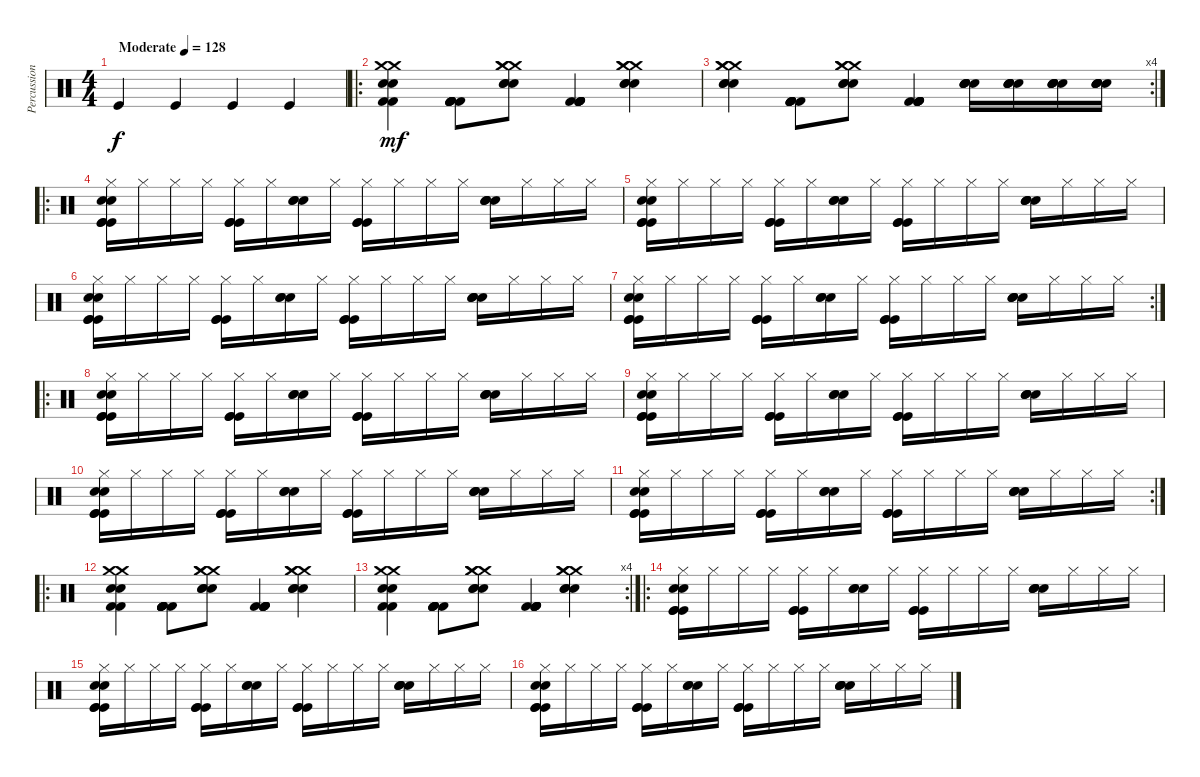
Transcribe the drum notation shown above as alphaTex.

\track ("Percussion" "Percussion") {instrument percussion}
\staff {score}
\articulation defaults
\ts (4 4)
\tempo (128 "Moderate")
\clef neutral
\ks c "Kick (hit)".4{dy f} "Kick (hit)".4 "Kick (hit)".4 "Kick (hit)".4
|
\ro
("Snare (hit) 2" "Snare (hit) 2" "Kick (hit) 2" "Kick (hit) 2" "Crash medium (hit)" "Crash medium (hit)").4{dy mf} ("Kick (hit) 2" "Kick (hit) 2" "Kick (hit) 2" "Kick (hit) 2" "Kick (hit) 2" "Kick (hit) 2").8 ("Snare (hit) 2" "Crash medium (hit)" "Snare (hit) 2" "Crash medium (hit)" "Snare (hit) 2" "Crash medium (hit)").8 ("Kick (hit) 2" "Kick (hit) 2" "Kick (hit) 2" "Kick (hit) 2" "Kick (hit) 2" "Kick (hit) 2").4 ("Snare (hit) 2" "Crash medium (hit)" "Snare (hit) 2" "Crash medium (hit)" "Snare (hit) 2" "Crash medium (hit)").4 |
\rc 4
("Snare (hit) 2" "Crash medium (hit)" "Snare (hit) 2" "Crash medium (hit)" "Snare (hit) 2" "Crash medium (hit)").4 ("Kick (hit) 2" "Kick (hit) 2" "Kick (hit) 2" "Kick (hit) 2" "Kick (hit) 2" "Kick (hit) 2").8 ("Snare (hit) 2" "Crash medium (hit)" "Snare (hit) 2" "Crash medium (hit)" "Snare (hit) 2" "Crash medium (hit)").8 ("Kick (hit) 2" "Kick (hit) 2" "Kick (hit) 2" "Kick (hit) 2" "Kick (hit) 2" "Kick (hit) 2").4 ("Snare (hit) 2" "Snare (hit) 2" "Snare (hit) 2" "Snare (hit) 2" "Snare (hit) 2").16 ("Snare (hit) 2" "Snare (hit) 2" "Snare (hit) 2" "Snare (hit) 2" "Snare (hit) 2").16 ("Snare (hit) 2" "Snare (hit) 2" "Snare (hit) 2" "Snare (hit) 2" "Snare (hit) 2").16 ("Snare (hit) 2" "Snare (hit) 2" "Snare (hit) 2" "Snare (hit) 2" "Snare (hit) 2").16 |
\ro
("Hi-Hat (closed)" "Kick (hit)" "Kick (hit)" "Kick (hit)" "Snare (hit) 2" "Snare (hit) 2").16 "Hi-Hat (closed)".16 "Hi-Hat (closed)".16 "Hi-Hat (closed)".16 ("Hi-Hat (closed)" "Kick (hit)" "Kick (hit)" "Kick (hit)").16 "Hi-Hat (closed)".16 ("Snare (hit) 2" "Snare (hit) 2" "Snare (hit) 2").16 "Hi-Hat (closed)".16 ("Hi-Hat (closed)" "Kick (hit)" "Kick (hit)" "Kick (hit)").16 "Hi-Hat (closed)".16 "Hi-Hat (closed)".16 "Hi-Hat (closed)".16 ("Snare (hit) 2" "Snare (hit) 2" "Snare (hit) 2" "Snare (hit) 2").16 "Hi-Hat (closed)".16 "Hi-Hat (closed)".16 "Hi-Hat (closed)".16 |
("Hi-Hat (closed)" "Kick (hit)" "Kick (hit)" "Kick (hit)" "Snare (hit) 2" "Snare (hit) 2").16 "Hi-Hat (closed)".16 "Hi-Hat (closed)".16 "Hi-Hat (closed)".16 ("Hi-Hat (closed)" "Kick (hit)" "Kick (hit)" "Kick (hit)").16 "Hi-Hat (closed)".16 ("Snare (hit) 2" "Snare (hit) 2" "Snare (hit) 2").16 "Hi-Hat (closed)".16 ("Hi-Hat (closed)" "Kick (hit)" "Kick (hit)" "Kick (hit)").16 "Hi-Hat (closed)".16 "Hi-Hat (closed)".16 "Hi-Hat (closed)".16 ("Snare (hit) 2" "Snare (hit) 2" "Snare (hit) 2" "Snare (hit) 2").16 "Hi-Hat (closed)".16 "Hi-Hat (closed)".16 "Hi-Hat (closed)".16 |
("Hi-Hat (closed)" "Kick (hit)" "Kick (hit)" "Kick (hit)" "Snare (hit) 2" "Snare (hit) 2").16 "Hi-Hat (closed)".16 "Hi-Hat (closed)".16 "Hi-Hat (closed)".16 ("Hi-Hat (closed)" "Kick (hit)" "Kick (hit)" "Kick (hit)").16 "Hi-Hat (closed)".16 ("Snare (hit) 2" "Snare (hit) 2" "Snare (hit) 2").16 "Hi-Hat (closed)".16 ("Hi-Hat (closed)" "Kick (hit)" "Kick (hit)" "Kick (hit)").16 "Hi-Hat (closed)".16 "Hi-Hat (closed)".16 "Hi-Hat (closed)".16 ("Snare (hit) 2" "Snare (hit) 2" "Snare (hit) 2" "Snare (hit) 2").16 "Hi-Hat (closed)".16 "Hi-Hat (closed)".16 "Hi-Hat (closed)".16 |
\rc 2
("Hi-Hat (closed)" "Kick (hit)" "Kick (hit)" "Kick (hit)" "Snare (hit) 2" "Snare (hit) 2").16 "Hi-Hat (closed)".16 "Hi-Hat (closed)".16 "Hi-Hat (closed)".16 ("Hi-Hat (closed)" "Kick (hit)" "Kick (hit)" "Kick (hit)").16 "Hi-Hat (closed)".16 ("Snare (hit) 2" "Snare (hit) 2" "Snare (hit) 2").16 "Hi-Hat (closed)".16 ("Hi-Hat (closed)" "Kick (hit)" "Kick (hit)" "Kick (hit)").16 "Hi-Hat (closed)".16 "Hi-Hat (closed)".16 "Hi-Hat (closed)".16 ("Snare (hit) 2" "Snare (hit) 2" "Snare (hit) 2" "Snare (hit) 2").16 "Hi-Hat (closed)".16 "Hi-Hat (closed)".16 "Hi-Hat (closed)".16 |
\ro
("Hi-Hat (closed)" "Kick (hit)" "Kick (hit)" "Kick (hit)" "Snare (hit) 2" "Snare (hit) 2").16 "Hi-Hat (closed)".16 "Hi-Hat (closed)".16 "Hi-Hat (closed)".16 ("Hi-Hat (closed)" "Kick (hit)" "Kick (hit)" "Kick (hit)").16 "Hi-Hat (closed)".16 ("Snare (hit) 2" "Snare (hit) 2" "Snare (hit) 2").16 "Hi-Hat (closed)".16 ("Hi-Hat (closed)" "Kick (hit)" "Kick (hit)" "Kick (hit)").16 "Hi-Hat (closed)".16 "Hi-Hat (closed)".16 "Hi-Hat (closed)".16 ("Snare (hit) 2" "Snare (hit) 2" "Snare (hit) 2" "Snare (hit) 2").16 "Hi-Hat (closed)".16 "Hi-Hat (closed)".16 "Hi-Hat (closed)".16 |
("Hi-Hat (closed)" "Kick (hit)" "Kick (hit)" "Kick (hit)" "Snare (hit) 2" "Snare (hit) 2").16 "Hi-Hat (closed)".16 "Hi-Hat (closed)".16 "Hi-Hat (closed)".16 ("Hi-Hat (closed)" "Kick (hit)" "Kick (hit)" "Kick (hit)").16 "Hi-Hat (closed)".16 ("Snare (hit) 2" "Snare (hit) 2" "Snare (hit) 2").16 "Hi-Hat (closed)".16 ("Hi-Hat (closed)" "Kick (hit)" "Kick (hit)" "Kick (hit)").16 "Hi-Hat (closed)".16 "Hi-Hat (closed)".16 "Hi-Hat (closed)".16 ("Snare (hit) 2" "Snare (hit) 2" "Snare (hit) 2" "Snare (hit) 2").16 "Hi-Hat (closed)".16 "Hi-Hat (closed)".16 "Hi-Hat (closed)".16 |
("Hi-Hat (closed)" "Kick (hit)" "Kick (hit)" "Kick (hit)" "Snare (hit) 2" "Snare (hit) 2").16 "Hi-Hat (closed)".16 "Hi-Hat (closed)".16 "Hi-Hat (closed)".16 ("Hi-Hat (closed)" "Kick (hit)" "Kick (hit)" "Kick (hit)").16 "Hi-Hat (closed)".16 ("Snare (hit) 2" "Snare (hit) 2" "Snare (hit) 2").16 "Hi-Hat (closed)".16 ("Hi-Hat (closed)" "Kick (hit)" "Kick (hit)" "Kick (hit)").16 "Hi-Hat (closed)".16 "Hi-Hat (closed)".16 "Hi-Hat (closed)".16 ("Snare (hit) 2" "Snare (hit) 2" "Snare (hit) 2" "Snare (hit) 2").16 "Hi-Hat (closed)".16 "Hi-Hat (closed)".16 "Hi-Hat (closed)".16 |
\rc 2
("Hi-Hat (closed)" "Kick (hit)" "Kick (hit)" "Kick (hit)" "Snare (hit) 2" "Snare (hit) 2").16 "Hi-Hat (closed)".16 "Hi-Hat (closed)".16 "Hi-Hat (closed)".16 ("Hi-Hat (closed)" "Kick (hit)" "Kick (hit)" "Kick (hit)").16 "Hi-Hat (closed)".16 ("Snare (hit) 2" "Snare (hit) 2" "Snare (hit) 2").16 "Hi-Hat (closed)".16 ("Hi-Hat (closed)" "Kick (hit)" "Kick (hit)" "Kick (hit)").16 "Hi-Hat (closed)".16 "Hi-Hat (closed)".16 "Hi-Hat (closed)".16 ("Snare (hit) 2" "Snare (hit) 2" "Snare (hit) 2" "Snare (hit) 2").16 "Hi-Hat (closed)".16 "Hi-Hat (closed)".16 "Hi-Hat (closed)".16 |
\ro
("Snare (hit) 2" "Snare (hit) 2" "Kick (hit) 2" "Kick (hit) 2" "Crash medium (hit)" "Crash medium (hit)").4 ("Kick (hit) 2" "Kick (hit) 2" "Kick (hit) 2" "Kick (hit) 2" "Kick (hit) 2" "Kick (hit) 2").8 ("Snare (hit) 2" "Crash medium (hit)" "Snare (hit) 2" "Crash medium (hit)" "Snare (hit) 2" "Crash medium (hit)").8 ("Kick (hit) 2" "Kick (hit) 2" "Kick (hit) 2" "Kick (hit) 2" "Kick (hit) 2" "Kick (hit) 2").4 ("Snare (hit) 2" "Crash medium (hit)" "Snare (hit) 2" "Crash medium (hit)" "Snare (hit) 2" "Crash medium (hit)").4 |
\rc 4
("Snare (hit) 2" "Snare (hit) 2" "Kick (hit) 2" "Kick (hit) 2" "Crash medium (hit)" "Crash medium (hit)").4 ("Kick (hit) 2" "Kick (hit) 2" "Kick (hit) 2" "Kick (hit) 2" "Kick (hit) 2" "Kick (hit) 2").8 ("Snare (hit) 2" "Crash medium (hit)" "Snare (hit) 2" "Crash medium (hit)" "Snare (hit) 2" "Crash medium (hit)").8 ("Kick (hit) 2" "Kick (hit) 2" "Kick (hit) 2" "Kick (hit) 2" "Kick (hit) 2" "Kick (hit) 2").4 ("Snare (hit) 2" "Crash medium (hit)" "Snare (hit) 2" "Crash medium (hit)" "Snare (hit) 2" "Crash medium (hit)").4 |
\ro
("Hi-Hat (closed)" "Kick (hit)" "Kick (hit)" "Kick (hit)" "Snare (hit) 2" "Snare (hit) 2").16 "Hi-Hat (closed)".16 "Hi-Hat (closed)".16 "Hi-Hat (closed)".16 ("Hi-Hat (closed)" "Kick (hit)" "Kick (hit)" "Kick (hit)").16 "Hi-Hat (closed)".16 ("Snare (hit) 2" "Snare (hit) 2" "Snare (hit) 2").16 "Hi-Hat (closed)".16 ("Hi-Hat (closed)" "Kick (hit)" "Kick (hit)" "Kick (hit)").16 "Hi-Hat (closed)".16 "Hi-Hat (closed)".16 "Hi-Hat (closed)".16 ("Snare (hit) 2" "Snare (hit) 2" "Snare (hit) 2" "Snare (hit) 2").16 "Hi-Hat (closed)".16 "Hi-Hat (closed)".16 "Hi-Hat (closed)".16 |
("Hi-Hat (closed)" "Kick (hit)" "Kick (hit)" "Kick (hit)" "Snare (hit) 2" "Snare (hit) 2").16 "Hi-Hat (closed)".16 "Hi-Hat (closed)".16 "Hi-Hat (closed)".16 ("Hi-Hat (closed)" "Kick (hit)" "Kick (hit)" "Kick (hit)").16 "Hi-Hat (closed)".16 ("Snare (hit) 2" "Snare (hit) 2" "Snare (hit) 2").16 "Hi-Hat (closed)".16 ("Hi-Hat (closed)" "Kick (hit)" "Kick (hit)" "Kick (hit)").16 "Hi-Hat (closed)".16 "Hi-Hat (closed)".16 "Hi-Hat (closed)".16 ("Snare (hit) 2" "Snare (hit) 2" "Snare (hit) 2" "Snare (hit) 2").16 "Hi-Hat (closed)".16 "Hi-Hat (closed)".16 "Hi-Hat (closed)".16 |
("Hi-Hat (closed)" "Kick (hit)" "Kick (hit)" "Kick (hit)" "Snare (hit) 2" "Snare (hit) 2").16 "Hi-Hat (closed)".16 "Hi-Hat (closed)".16 "Hi-Hat (closed)".16 ("Hi-Hat (closed)" "Kick (hit)" "Kick (hit)" "Kick (hit)").16 "Hi-Hat (closed)".16 ("Snare (hit) 2" "Snare (hit) 2" "Snare (hit) 2").16 "Hi-Hat (closed)".16 ("Hi-Hat (closed)" "Kick (hit)" "Kick (hit)" "Kick (hit)").16 "Hi-Hat (closed)".16 "Hi-Hat (closed)".16 "Hi-Hat (closed)".16 ("Snare (hit) 2" "Snare (hit) 2" "Snare (hit) 2" "Snare (hit) 2").16 "Hi-Hat (closed)".16 "Hi-Hat (closed)".16 "Hi-Hat (closed)".16
